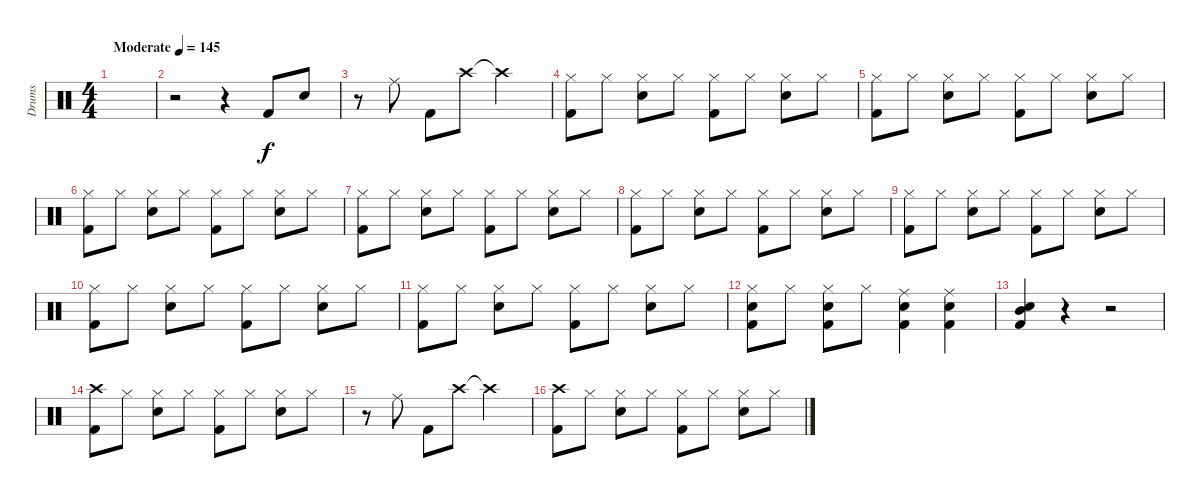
\track ("Drums" "Drums") {instrument percussion}
\staff {score}
\articulation defaults
\ts (4 4)
\tempo (145 "Moderate")
\clef neutral
\ks c
|
r.2 r.4 "Kick (hit) 2".8 "Snare (hit) 2".8 |
r.8 "Ride (middle)".8 "Kick (hit) 2".8 "Crash high (hit)".8 "Crash high (hit)"{t}.2 |
("Hi-Hat (closed)" "Kick (hit) 2").8 "Hi-Hat (closed)".8 ("Hi-Hat (closed)" "Snare (hit) 2").8 "Hi-Hat (closed)".8 ("Hi-Hat (closed)" "Kick (hit) 2").8 "Hi-Hat (closed)".8 ("Hi-Hat (closed)" "Snare (hit) 2").8 "Hi-Hat (closed)".8 |
("Hi-Hat (closed)" "Kick (hit) 2").8 "Hi-Hat (closed)".8 ("Hi-Hat (closed)" "Snare (hit) 2").8 "Hi-Hat (closed)".8 ("Hi-Hat (closed)" "Kick (hit) 2").8 "Hi-Hat (closed)".8 ("Hi-Hat (closed)" "Snare (hit) 2").8 "Hi-Hat (closed)".8 |
("Hi-Hat (closed)" "Kick (hit) 2").8 "Hi-Hat (closed)".8 ("Hi-Hat (closed)" "Snare (hit) 2").8 "Hi-Hat (closed)".8 ("Hi-Hat (closed)" "Kick (hit) 2").8 "Hi-Hat (closed)".8 ("Hi-Hat (closed)" "Snare (hit) 2").8 "Hi-Hat (closed)".8 |
("Hi-Hat (closed)" "Kick (hit) 2").8 "Hi-Hat (closed)".8 ("Hi-Hat (closed)" "Snare (hit) 2").8 "Hi-Hat (closed)".8 ("Hi-Hat (closed)" "Kick (hit) 2").8 "Hi-Hat (closed)".8 ("Hi-Hat (closed)" "Snare (hit) 2").8 "Hi-Hat (closed)".8 |
("Hi-Hat (closed)" "Kick (hit) 2").8 "Hi-Hat (closed)".8 ("Hi-Hat (closed)" "Snare (hit) 2").8 "Hi-Hat (closed)".8 ("Hi-Hat (closed)" "Kick (hit) 2").8 "Hi-Hat (closed)".8 ("Hi-Hat (closed)" "Snare (hit) 2").8 "Hi-Hat (closed)".8 |
("Hi-Hat (closed)" "Kick (hit) 2").8 "Hi-Hat (closed)".8 ("Hi-Hat (closed)" "Snare (hit) 2").8 "Hi-Hat (closed)".8 ("Hi-Hat (closed)" "Kick (hit) 2").8 "Hi-Hat (closed)".8 ("Hi-Hat (closed)" "Snare (hit) 2").8 "Hi-Hat (closed)".8 |
("Hi-Hat (closed)" "Kick (hit) 2").8 "Hi-Hat (closed)".8 ("Hi-Hat (closed)" "Snare (hit) 2").8 "Hi-Hat (closed)".8 ("Hi-Hat (closed)" "Kick (hit) 2").8 "Hi-Hat (closed)".8 ("Hi-Hat (closed)" "Snare (hit) 2").8 "Hi-Hat (closed)".8 |
("Hi-Hat (closed)" "Kick (hit) 2").8 "Hi-Hat (closed)".8 ("Hi-Hat (closed)" "Snare (hit) 2").8 "Hi-Hat (closed)".8 ("Hi-Hat (closed)" "Kick (hit) 2").8 "Hi-Hat (closed)".8 ("Hi-Hat (closed)" "Snare (hit) 2").8 "Hi-Hat (closed)".8 |
("Hi-Hat (closed)" "Kick (hit) 2" "Snare (hit) 2").8 "Hi-Hat (closed)".8 ("Hi-Hat (closed)" "Snare (hit) 2" "Kick (hit) 2").8 "Hi-Hat (closed)".8 ("Ride (middle)" "Kick (hit) 2" "Snare (hit) 2").4 ("Ride (middle)" "Kick (hit) 2" "Snare (hit) 2").4 |
("Snare (hit) 2" "Mid Tom (hit)" "Kick (hit) 2").4 r.4 r.2 |
("Crash high (hit)" "Kick (hit) 2").8 "Hi-Hat (closed)".8 ("Hi-Hat (closed)" "Snare (hit) 2").8 "Hi-Hat (closed)".8 ("Hi-Hat (closed)" "Kick (hit) 2").8 "Hi-Hat (closed)".8 ("Hi-Hat (closed)" "Snare (hit) 2").8 "Hi-Hat (closed)".8 |
r.8 "Ride (middle)".8 "Kick (hit) 2".8 "Crash high (hit)".8 "Crash high (hit)"{t}.2 |
("Crash high (hit)" "Kick (hit) 2").8{volume 0} "Hi-Hat (closed)".8 ("Hi-Hat (closed)" "Snare (hit) 2").8 "Hi-Hat (closed)".8 ("Hi-Hat (closed)" "Kick (hit) 2").8 "Hi-Hat (closed)".8 ("Hi-Hat (closed)" "Snare (hit) 2").8 "Hi-Hat (closed)".8
